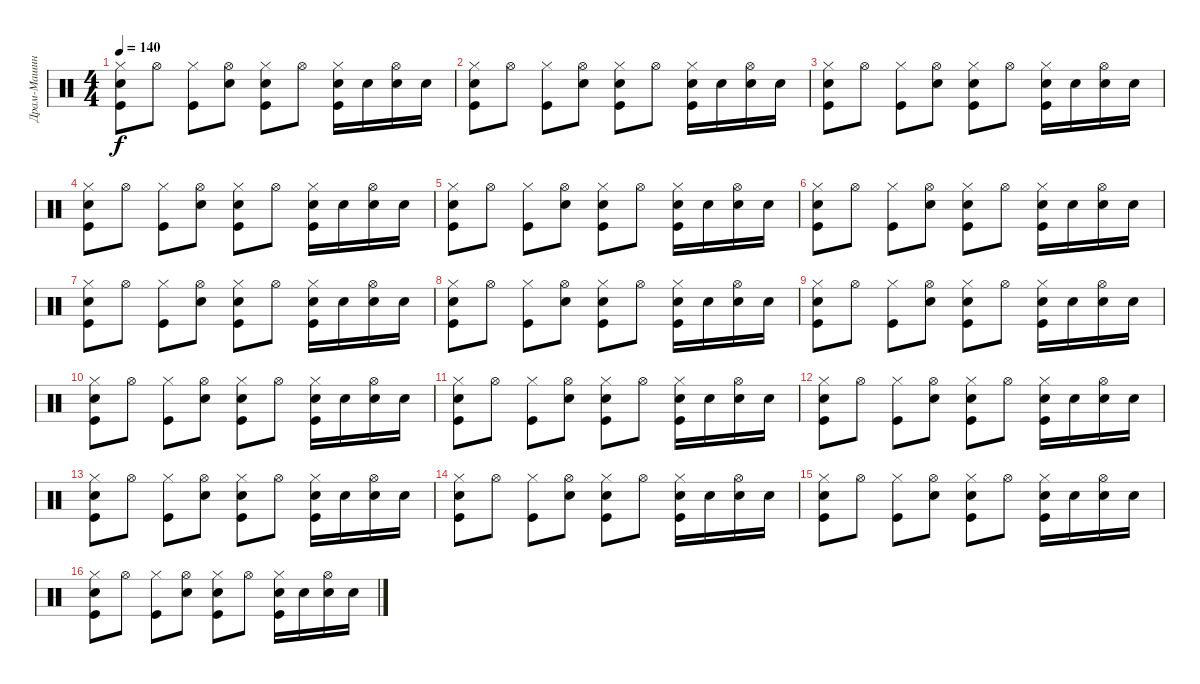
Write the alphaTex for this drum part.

\track ("Драм-Машина" "Драм-Машин") {instrument percussion}
\staff {score}
\articulation defaults
\ts (4 4)
\tempo 140
\clef neutral
\ks c
("Snare (hit) 2" "Hi-Hat (closed)" "Kick (hit)").8{dy f} "Hi-Hat (open)".8 ("Hi-Hat (closed)" "Kick (hit)").8 ("Snare (hit) 2" "Hi-Hat (open)").8 ("Snare (hit) 2" "Hi-Hat (closed)" "Kick (hit)").8 "Hi-Hat (open)".8 ("Snare (hit) 2" "Hi-Hat (closed)" "Kick (hit)").16 "Snare (hit) 2".16 ("Snare (hit) 2" "Hi-Hat (open)").16 "Snare (hit) 2".16 |
("Snare (hit) 2" "Hi-Hat (closed)" "Kick (hit)").8 "Hi-Hat (open)".8 ("Hi-Hat (closed)" "Kick (hit)").8 ("Snare (hit) 2" "Hi-Hat (open)").8 ("Snare (hit) 2" "Hi-Hat (closed)" "Kick (hit)").8 "Hi-Hat (open)".8 ("Snare (hit) 2" "Hi-Hat (closed)" "Kick (hit)").16 "Snare (hit) 2".16 ("Snare (hit) 2" "Hi-Hat (open)").16 "Snare (hit) 2".16 |
("Snare (hit) 2" "Hi-Hat (closed)" "Kick (hit)").8 "Hi-Hat (open)".8 ("Hi-Hat (closed)" "Kick (hit)").8 ("Snare (hit) 2" "Hi-Hat (open)").8 ("Snare (hit) 2" "Hi-Hat (closed)" "Kick (hit)").8 "Hi-Hat (open)".8 ("Snare (hit) 2" "Hi-Hat (closed)" "Kick (hit)").16 "Snare (hit) 2".16 ("Snare (hit) 2" "Hi-Hat (open)").16 "Snare (hit) 2".16 |
("Snare (hit) 2" "Hi-Hat (closed)" "Kick (hit)").8 "Hi-Hat (open)".8 ("Hi-Hat (closed)" "Kick (hit)").8 ("Snare (hit) 2" "Hi-Hat (open)").8 ("Snare (hit) 2" "Hi-Hat (closed)" "Kick (hit)").8 "Hi-Hat (open)".8 ("Snare (hit) 2" "Hi-Hat (closed)" "Kick (hit)").16 "Snare (hit) 2".16 ("Snare (hit) 2" "Hi-Hat (open)").16 "Snare (hit) 2".16 |
("Snare (hit) 2" "Hi-Hat (closed)" "Kick (hit)").8 "Hi-Hat (open)".8 ("Hi-Hat (closed)" "Kick (hit)").8 ("Snare (hit) 2" "Hi-Hat (open)").8 ("Snare (hit) 2" "Hi-Hat (closed)" "Kick (hit)").8 "Hi-Hat (open)".8 ("Snare (hit) 2" "Hi-Hat (closed)" "Kick (hit)").16 "Snare (hit) 2".16 ("Snare (hit) 2" "Hi-Hat (open)").16 "Snare (hit) 2".16 |
("Snare (hit) 2" "Hi-Hat (closed)" "Kick (hit)").8 "Hi-Hat (open)".8 ("Hi-Hat (closed)" "Kick (hit)").8 ("Snare (hit) 2" "Hi-Hat (open)").8 ("Snare (hit) 2" "Hi-Hat (closed)" "Kick (hit)").8 "Hi-Hat (open)".8 ("Snare (hit) 2" "Hi-Hat (closed)" "Kick (hit)").16 "Snare (hit) 2".16 ("Snare (hit) 2" "Hi-Hat (open)").16 "Snare (hit) 2".16 |
("Snare (hit) 2" "Hi-Hat (closed)" "Kick (hit)").8 "Hi-Hat (open)".8 ("Hi-Hat (closed)" "Kick (hit)").8 ("Snare (hit) 2" "Hi-Hat (open)").8 ("Snare (hit) 2" "Hi-Hat (closed)" "Kick (hit)").8 "Hi-Hat (open)".8 ("Snare (hit) 2" "Hi-Hat (closed)" "Kick (hit)").16 "Snare (hit) 2".16 ("Snare (hit) 2" "Hi-Hat (open)").16 "Snare (hit) 2".16 |
("Snare (hit) 2" "Hi-Hat (closed)" "Kick (hit)").8 "Hi-Hat (open)".8 ("Hi-Hat (closed)" "Kick (hit)").8 ("Snare (hit) 2" "Hi-Hat (open)").8 ("Snare (hit) 2" "Hi-Hat (closed)" "Kick (hit)").8 "Hi-Hat (open)".8 ("Snare (hit) 2" "Hi-Hat (closed)" "Kick (hit)").16 "Snare (hit) 2".16 ("Snare (hit) 2" "Hi-Hat (open)").16 "Snare (hit) 2".16 |
("Snare (hit) 2" "Hi-Hat (closed)" "Kick (hit)").8 "Hi-Hat (open)".8 ("Hi-Hat (closed)" "Kick (hit)").8 ("Snare (hit) 2" "Hi-Hat (open)").8 ("Snare (hit) 2" "Hi-Hat (closed)" "Kick (hit)").8 "Hi-Hat (open)".8 ("Snare (hit) 2" "Hi-Hat (closed)" "Kick (hit)").16 "Snare (hit) 2".16 ("Snare (hit) 2" "Hi-Hat (open)").16 "Snare (hit) 2".16 |
("Snare (hit) 2" "Hi-Hat (closed)" "Kick (hit)").8 "Hi-Hat (open)".8 ("Hi-Hat (closed)" "Kick (hit)").8 ("Snare (hit) 2" "Hi-Hat (open)").8 ("Snare (hit) 2" "Hi-Hat (closed)" "Kick (hit)").8 "Hi-Hat (open)".8 ("Snare (hit) 2" "Hi-Hat (closed)" "Kick (hit)").16 "Snare (hit) 2".16 ("Snare (hit) 2" "Hi-Hat (open)").16 "Snare (hit) 2".16 |
("Snare (hit) 2" "Hi-Hat (closed)" "Kick (hit)").8 "Hi-Hat (open)".8 ("Hi-Hat (closed)" "Kick (hit)").8 ("Snare (hit) 2" "Hi-Hat (open)").8 ("Snare (hit) 2" "Hi-Hat (closed)" "Kick (hit)").8 "Hi-Hat (open)".8 ("Snare (hit) 2" "Hi-Hat (closed)" "Kick (hit)").16 "Snare (hit) 2".16 ("Snare (hit) 2" "Hi-Hat (open)").16 "Snare (hit) 2".16 |
("Snare (hit) 2" "Hi-Hat (closed)" "Kick (hit)").8 "Hi-Hat (open)".8 ("Hi-Hat (closed)" "Kick (hit)").8 ("Snare (hit) 2" "Hi-Hat (open)").8 ("Snare (hit) 2" "Hi-Hat (closed)" "Kick (hit)").8 "Hi-Hat (open)".8 ("Snare (hit) 2" "Hi-Hat (closed)" "Kick (hit)").16 "Snare (hit) 2".16 ("Snare (hit) 2" "Hi-Hat (open)").16 "Snare (hit) 2".16 |
("Snare (hit) 2" "Hi-Hat (closed)" "Kick (hit)").8 "Hi-Hat (open)".8 ("Hi-Hat (closed)" "Kick (hit)").8 ("Snare (hit) 2" "Hi-Hat (open)").8 ("Snare (hit) 2" "Hi-Hat (closed)" "Kick (hit)").8 "Hi-Hat (open)".8 ("Snare (hit) 2" "Hi-Hat (closed)" "Kick (hit)").16 "Snare (hit) 2".16 ("Snare (hit) 2" "Hi-Hat (open)").16 "Snare (hit) 2".16 |
("Snare (hit) 2" "Hi-Hat (closed)" "Kick (hit)").8 "Hi-Hat (open)".8 ("Hi-Hat (closed)" "Kick (hit)").8 ("Snare (hit) 2" "Hi-Hat (open)").8 ("Snare (hit) 2" "Hi-Hat (closed)" "Kick (hit)").8 "Hi-Hat (open)".8 ("Snare (hit) 2" "Hi-Hat (closed)" "Kick (hit)").16 "Snare (hit) 2".16 ("Snare (hit) 2" "Hi-Hat (open)").16 "Snare (hit) 2".16 |
("Snare (hit) 2" "Hi-Hat (closed)" "Kick (hit)").8 "Hi-Hat (open)".8 ("Hi-Hat (closed)" "Kick (hit)").8 ("Snare (hit) 2" "Hi-Hat (open)").8 ("Snare (hit) 2" "Hi-Hat (closed)" "Kick (hit)").8 "Hi-Hat (open)".8 ("Snare (hit) 2" "Hi-Hat (closed)" "Kick (hit)").16 "Snare (hit) 2".16 ("Snare (hit) 2" "Hi-Hat (open)").16 "Snare (hit) 2".16 |
("Snare (hit) 2" "Hi-Hat (closed)" "Kick (hit)").8 "Hi-Hat (open)".8 ("Hi-Hat (closed)" "Kick (hit)").8 ("Snare (hit) 2" "Hi-Hat (open)").8 ("Snare (hit) 2" "Hi-Hat (closed)" "Kick (hit)").8 "Hi-Hat (open)".8 ("Snare (hit) 2" "Hi-Hat (closed)" "Kick (hit)").16 "Snare (hit) 2".16 ("Snare (hit) 2" "Hi-Hat (open)").16 "Snare (hit) 2".16
